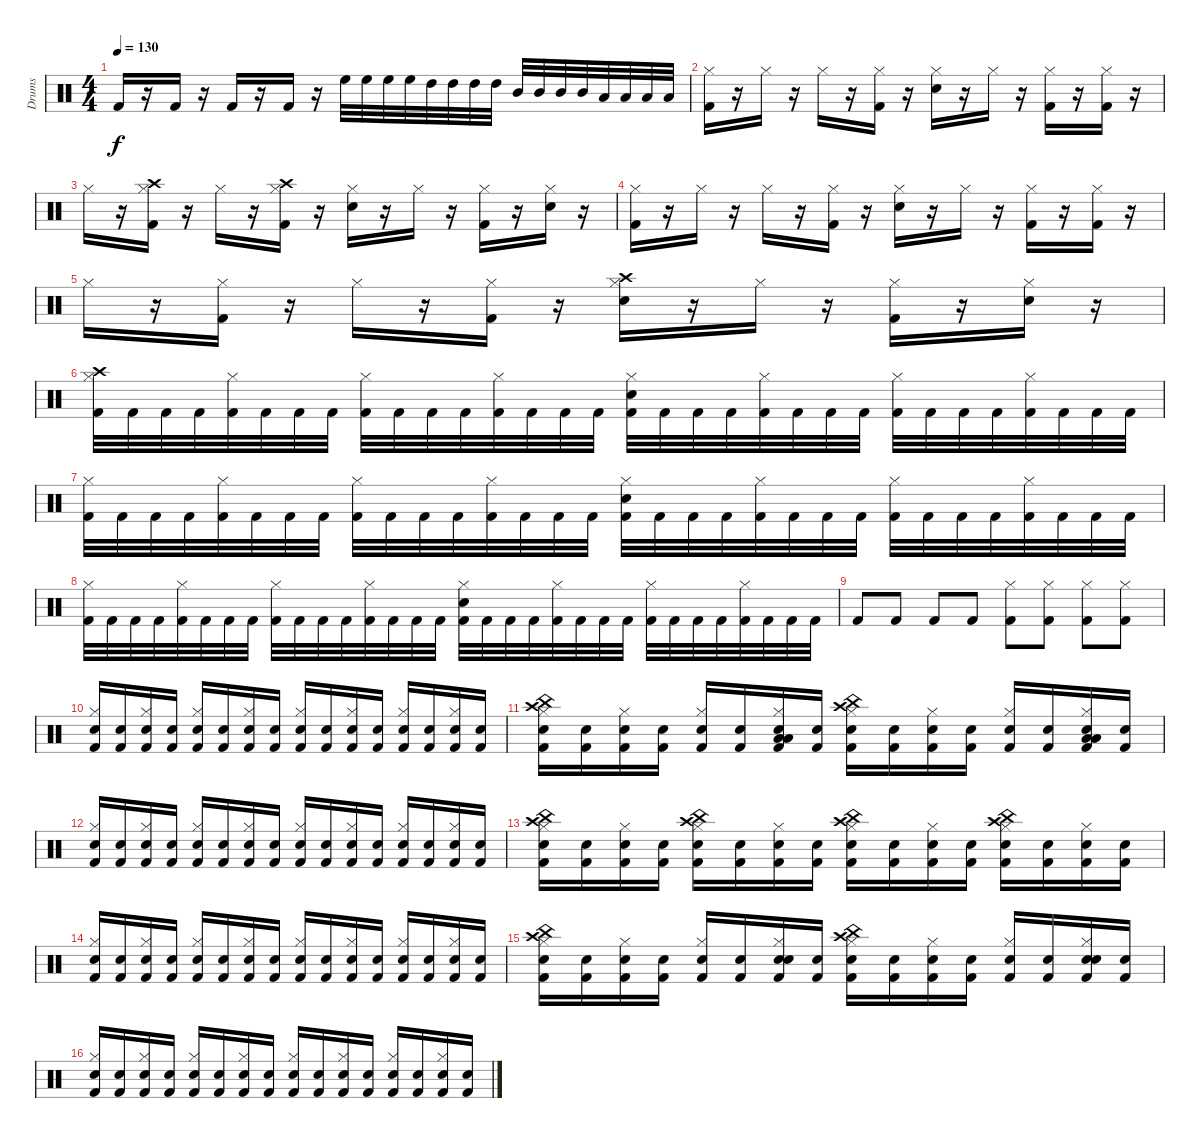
\track ("Drums" "Drums") {instrument percussion}
\staff {score}
\articulation defaults
\ts (4 4)
\tempo 130
\clef neutral
\ks c "Kick (hit) 2".16{dy f}
r.16 "Kick (hit) 2".16 r.16 "Kick (hit) 2".16 r.16 "Kick (hit) 2".16 r.16 "High Floor Tom (hit)".32 "High Floor Tom (hit)".32 "High Floor Tom (hit)".32 "High Floor Tom (hit)".32 "High Tom (hit)".32 "High Tom (hit)".32 "High Tom (hit)".32 "High Tom (hit)".32 "Mid Tom (hit)".32 "Mid Tom (hit)".32 "Mid Tom (hit)".32 "Mid Tom (hit)".32 "Low Tom (hit)".32 "Low Tom (hit)".32 "Low Tom (hit)".32 "Low Tom (hit)".32 |
("Hi-Hat (closed)" "Kick (hit) 2").16 r.16 "Hi-Hat (closed)".16 r.16 "Hi-Hat (closed)".16 r.16 ("Hi-Hat (closed)" "Kick (hit) 2").16 r.16 ("Hi-Hat (closed)" "Electric Snare (hit)").16 r.16 "Hi-Hat (closed)".16 r.16 ("Hi-Hat (closed)" "Kick (hit) 2").16 r.16 ("Hi-Hat (closed)" "Kick (hit) 2").16 r.16 |
"Hi-Hat (closed)".16 r.16 ("Hi-Hat (closed)" "Crash high (hit)" "Kick (hit) 2").16 r.16 "Hi-Hat (closed)".16 r.16 ("Hi-Hat (closed)" "Crash high (hit)" "Kick (hit) 2").16 r.16 ("Hi-Hat (closed)" "Electric Snare (hit)").16 r.16 "Hi-Hat (closed)".16 r.16 ("Hi-Hat (closed)" "Kick (hit) 2").16 r.16 ("Hi-Hat (closed)" "Electric Snare (hit)").16 r.16 |
("Hi-Hat (closed)" "Kick (hit) 2").16 r.16 "Hi-Hat (closed)".16 r.16 "Hi-Hat (closed)".16 r.16 ("Hi-Hat (closed)" "Kick (hit) 2").16 r.16 ("Hi-Hat (closed)" "Electric Snare (hit)").16 r.16 "Hi-Hat (closed)".16 r.16 ("Hi-Hat (closed)" "Kick (hit) 2").16 r.16 ("Hi-Hat (closed)" "Kick (hit) 2").16 r.16 |
"Hi-Hat (closed)".16 r.16 ("Hi-Hat (closed)" "Kick (hit) 2").16 r.16 "Hi-Hat (closed)".16 r.16 ("Hi-Hat (closed)" "Kick (hit) 2").16 r.16 ("Hi-Hat (closed)" "Crash high (hit)" "Electric Snare (hit)").16 r.16 "Hi-Hat (closed)".16 r.16 ("Hi-Hat (closed)" "Kick (hit) 2").16 r.16 ("Hi-Hat (closed)" "Electric Snare (hit)").16 r.16 |
("Hi-Hat (closed)" "Crash high (hit)" "Kick (hit) 2").32 "Kick (hit) 2".32 "Kick (hit) 2".32 "Kick (hit) 2".32 ("Hi-Hat (closed)" "Kick (hit) 2").32 "Kick (hit) 2".32 "Kick (hit) 2".32 "Kick (hit) 2".32 ("Hi-Hat (closed)" "Kick (hit) 2").32 "Kick (hit) 2".32 "Kick (hit) 2".32 "Kick (hit) 2".32 ("Hi-Hat (closed)" "Kick (hit) 2").32 "Kick (hit) 2".32 "Kick (hit) 2".32 "Kick (hit) 2".32 ("Hi-Hat (closed)" "Electric Snare (hit)" "Kick (hit) 2").32 "Kick (hit) 2".32 "Kick (hit) 2".32 "Kick (hit) 2".32 ("Hi-Hat (closed)" "Kick (hit) 2").32 "Kick (hit) 2".32 "Kick (hit) 2".32 "Kick (hit) 2".32 ("Hi-Hat (closed)" "Kick (hit) 2").32 "Kick (hit) 2".32 "Kick (hit) 2".32 "Kick (hit) 2".32 ("Hi-Hat (closed)" "Kick (hit) 2").32 "Kick (hit) 2".32 "Kick (hit) 2".32 "Kick (hit) 2".32 |
("Hi-Hat (closed)" "Kick (hit) 2").32 "Kick (hit) 2".32 "Kick (hit) 2".32 "Kick (hit) 2".32 ("Hi-Hat (closed)" "Kick (hit) 2").32 "Kick (hit) 2".32 "Kick (hit) 2".32 "Kick (hit) 2".32 ("Hi-Hat (closed)" "Kick (hit) 2").32 "Kick (hit) 2".32 "Kick (hit) 2".32 "Kick (hit) 2".32 ("Hi-Hat (closed)" "Kick (hit) 2").32 "Kick (hit) 2".32 "Kick (hit) 2".32 "Kick (hit) 2".32 ("Hi-Hat (closed)" "Electric Snare (hit)" "Kick (hit) 2").32 "Kick (hit) 2".32 "Kick (hit) 2".32 "Kick (hit) 2".32 ("Hi-Hat (closed)" "Kick (hit) 2").32 "Kick (hit) 2".32 "Kick (hit) 2".32 "Kick (hit) 2".32 ("Hi-Hat (closed)" "Kick (hit) 2").32 "Kick (hit) 2".32 "Kick (hit) 2".32 "Kick (hit) 2".32 ("Hi-Hat (closed)" "Kick (hit) 2").32 "Kick (hit) 2".32 "Kick (hit) 2".32 "Kick (hit) 2".32 |
("Hi-Hat (closed)" "Kick (hit) 2").32 "Kick (hit) 2".32 "Kick (hit) 2".32 "Kick (hit) 2".32 ("Hi-Hat (closed)" "Kick (hit) 2").32 "Kick (hit) 2".32 "Kick (hit) 2".32 "Kick (hit) 2".32 ("Hi-Hat (closed)" "Kick (hit) 2").32 "Kick (hit) 2".32 "Kick (hit) 2".32 "Kick (hit) 2".32 ("Hi-Hat (closed)" "Kick (hit) 2").32 "Kick (hit) 2".32 "Kick (hit) 2".32 "Kick (hit) 2".32 ("Hi-Hat (closed)" "Electric Snare (hit)" "Kick (hit) 2").32 "Kick (hit) 2".32 "Kick (hit) 2".32 "Kick (hit) 2".32 ("Hi-Hat (closed)" "Kick (hit) 2").32 "Kick (hit) 2".32 "Kick (hit) 2".32 "Kick (hit) 2".32 ("Hi-Hat (closed)" "Kick (hit) 2").32 "Kick (hit) 2".32 "Kick (hit) 2".32 "Kick (hit) 2".32 ("Hi-Hat (closed)" "Kick (hit) 2").32 "Kick (hit) 2".32 "Kick (hit) 2".32 "Kick (hit) 2".32 |
"Kick (hit) 2".8 "Kick (hit) 2".8 "Kick (hit) 2".8 "Kick (hit) 2".8 ("Hi-Hat (closed)" "Kick (hit) 2").8 ("Hi-Hat (closed)" "Kick (hit) 2").8 ("Hi-Hat (closed)" "Kick (hit) 2").8 ("Hi-Hat (closed)" "Kick (hit) 2").8 |
("Hi-Hat (closed)" "Electric Snare (hit)" "Kick (hit) 2").16 ("Electric Snare (hit)" "Kick (hit) 2").16 ("Hi-Hat (closed)" "Electric Snare (hit)" "Kick (hit) 2").16 ("Electric Snare (hit)" "Kick (hit) 2").16 ("Hi-Hat (closed)" "Electric Snare (hit)" "Kick (hit) 2").16 ("Electric Snare (hit)" "Kick (hit) 2").16 ("Hi-Hat (closed)" "Electric Snare (hit)" "Kick (hit) 2").16 ("Electric Snare (hit)" "Kick (hit) 2").16 ("Hi-Hat (closed)" "Electric Snare (hit)" "Kick (hit) 2").16 ("Electric Snare (hit)" "Kick (hit) 2").16 ("Hi-Hat (closed)" "Electric Snare (hit)" "Kick (hit) 2").16 ("Electric Snare (hit)" "Kick (hit) 2").16 ("Hi-Hat (closed)" "Electric Snare (hit)" "Kick (hit) 2").16 ("Electric Snare (hit)" "Kick (hit) 2").16 ("Hi-Hat (closed)" "Electric Snare (hit)" "Kick (hit) 2").16 ("Electric Snare (hit)" "Kick (hit) 2").16 |
("Hi-Hat (closed)" "Crash high (hit)" "Electric Snare (hit)" "China (hit)" "Kick (hit) 2").16 ("Electric Snare (hit)" "Kick (hit) 2").16 ("Hi-Hat (closed)" "Electric Snare (hit)" "Kick (hit) 2").16 ("Electric Snare (hit)" "Kick (hit) 2").16 ("Hi-Hat (closed)" "Electric Snare (hit)" "Kick (hit) 2").16 ("Electric Snare (hit)" "Kick (hit) 2").16 ("Hi-Hat (closed)" "Low Floor Tom (hit)" "Electric Snare (hit)" "Low Floor Tom (hit)" "Kick (hit) 2").16 ("Electric Snare (hit)" "Kick (hit) 2").16 ("Hi-Hat (closed)" "Crash high (hit)" "Electric Snare (hit)" "China (hit)" "Kick (hit) 2").16 ("Electric Snare (hit)" "Kick (hit) 2").16 ("Hi-Hat (closed)" "Electric Snare (hit)" "Kick (hit) 2").16 ("Electric Snare (hit)" "Kick (hit) 2").16 ("Hi-Hat (closed)" "Electric Snare (hit)" "Kick (hit) 2").16 ("Electric Snare (hit)" "Kick (hit) 2").16 ("Hi-Hat (closed)" "Low Floor Tom (hit)" "Electric Snare (hit)" "Low Floor Tom (hit)" "Kick (hit) 2").16 ("Electric Snare (hit)" "Kick (hit) 2").16 |
("Hi-Hat (closed)" "Electric Snare (hit)" "Kick (hit) 2").16 ("Electric Snare (hit)" "Kick (hit) 2").16 ("Hi-Hat (closed)" "Electric Snare (hit)" "Kick (hit) 2").16 ("Electric Snare (hit)" "Kick (hit) 2").16 ("Hi-Hat (closed)" "Electric Snare (hit)" "Kick (hit) 2").16 ("Electric Snare (hit)" "Kick (hit) 2").16 ("Hi-Hat (closed)" "Electric Snare (hit)" "Kick (hit) 2").16 ("Electric Snare (hit)" "Kick (hit) 2").16 ("Hi-Hat (closed)" "Electric Snare (hit)" "Kick (hit) 2").16 ("Electric Snare (hit)" "Kick (hit) 2").16 ("Hi-Hat (closed)" "Electric Snare (hit)" "Kick (hit) 2").16 ("Electric Snare (hit)" "Kick (hit) 2").16 ("Hi-Hat (closed)" "Electric Snare (hit)" "Kick (hit) 2").16 ("Electric Snare (hit)" "Kick (hit) 2").16 ("Hi-Hat (closed)" "Electric Snare (hit)" "Kick (hit) 2").16 ("Electric Snare (hit)" "Kick (hit) 2").16 |
("Hi-Hat (closed)" "Crash high (hit)" "Electric Snare (hit)" "China (hit)" "Kick (hit) 2").16 ("Electric Snare (hit)" "Kick (hit) 2").16 ("Hi-Hat (closed)" "Electric Snare (hit)" "Kick (hit) 2").16 ("Electric Snare (hit)" "Kick (hit) 2").16 ("Hi-Hat (closed)" "Crash high (hit)" "Electric Snare (hit)" "China (hit)" "Kick (hit) 2").16 ("Electric Snare (hit)" "Kick (hit) 2").16 ("Hi-Hat (closed)" "Electric Snare (hit)" "Kick (hit) 2").16 ("Electric Snare (hit)" "Kick (hit) 2").16 ("Hi-Hat (closed)" "Crash high (hit)" "Electric Snare (hit)" "China (hit)" "Kick (hit) 2").16 ("Electric Snare (hit)" "Kick (hit) 2").16 ("Hi-Hat (closed)" "Electric Snare (hit)" "Kick (hit) 2").16 ("Electric Snare (hit)" "Kick (hit) 2").16 ("Hi-Hat (closed)" "Crash high (hit)" "Electric Snare (hit)" "China (hit)" "Kick (hit) 2").16 ("Electric Snare (hit)" "Kick (hit) 2").16 ("Hi-Hat (closed)" "Electric Snare (hit)" "Kick (hit) 2").16 ("Electric Snare (hit)" "Kick (hit) 2").16 |
("Hi-Hat (closed)" "Electric Snare (hit)" "Kick (hit) 2").16 ("Electric Snare (hit)" "Kick (hit) 2").16 ("Hi-Hat (closed)" "Electric Snare (hit)" "Kick (hit) 2").16 ("Electric Snare (hit)" "Kick (hit) 2").16 ("Hi-Hat (closed)" "Electric Snare (hit)" "Kick (hit) 2").16 ("Electric Snare (hit)" "Kick (hit) 2").16 ("Hi-Hat (closed)" "Electric Snare (hit)" "Kick (hit) 2").16 ("Electric Snare (hit)" "Kick (hit) 2").16 ("Hi-Hat (closed)" "Electric Snare (hit)" "Kick (hit) 2").16 ("Electric Snare (hit)" "Kick (hit) 2").16 ("Hi-Hat (closed)" "Electric Snare (hit)" "Kick (hit) 2").16 ("Electric Snare (hit)" "Kick (hit) 2").16 ("Hi-Hat (closed)" "Electric Snare (hit)" "Kick (hit) 2").16 ("Electric Snare (hit)" "Kick (hit) 2").16 ("Hi-Hat (closed)" "Electric Snare (hit)" "Kick (hit) 2").16 ("Electric Snare (hit)" "Kick (hit) 2").16 |
("Hi-Hat (closed)" "Crash high (hit)" "Electric Snare (hit)" "China (hit)" "Kick (hit) 2").16 ("Electric Snare (hit)" "Kick (hit) 2").16 ("Hi-Hat (closed)" "Electric Snare (hit)" "Kick (hit) 2").16 ("Electric Snare (hit)" "Kick (hit) 2").16 ("Hi-Hat (closed)" "Electric Snare (hit)" "Kick (hit) 2").16 ("Electric Snare (hit)" "Kick (hit) 2").16 ("Hi-Hat (closed)" "Snare (hit) 2" "Electric Snare (hit)" "Kick (hit) 2").16 ("Electric Snare (hit)" "Kick (hit) 2").16 ("Hi-Hat (closed)" "Crash high (hit)" "Electric Snare (hit)" "China (hit)" "Kick (hit) 2").16 ("Electric Snare (hit)" "Kick (hit) 2").16 ("Hi-Hat (closed)" "Electric Snare (hit)" "Kick (hit) 2").16 ("Electric Snare (hit)" "Kick (hit) 2").16 ("Hi-Hat (closed)" "Electric Snare (hit)" "Kick (hit) 2").16 ("Electric Snare (hit)" "Kick (hit) 2").16 ("Hi-Hat (closed)" "Snare (hit) 2" "Electric Snare (hit)" "Kick (hit) 2").16 ("Electric Snare (hit)" "Kick (hit) 2").16 |
("Hi-Hat (closed)" "Electric Snare (hit)" "Kick (hit) 2").16 ("Electric Snare (hit)" "Kick (hit) 2").16 ("Hi-Hat (closed)" "Electric Snare (hit)" "Kick (hit) 2").16 ("Electric Snare (hit)" "Kick (hit) 2").16 ("Hi-Hat (closed)" "Electric Snare (hit)" "Kick (hit) 2").16 ("Electric Snare (hit)" "Kick (hit) 2").16 ("Hi-Hat (closed)" "Electric Snare (hit)" "Kick (hit) 2").16 ("Electric Snare (hit)" "Kick (hit) 2").16 ("Hi-Hat (closed)" "Electric Snare (hit)" "Kick (hit) 2").16 ("Electric Snare (hit)" "Kick (hit) 2").16 ("Hi-Hat (closed)" "Electric Snare (hit)" "Kick (hit) 2").16 ("Electric Snare (hit)" "Kick (hit) 2").16 ("Hi-Hat (closed)" "Electric Snare (hit)" "Kick (hit) 2").16 ("Electric Snare (hit)" "Kick (hit) 2").16 ("Hi-Hat (closed)" "Electric Snare (hit)" "Kick (hit) 2").16 ("Electric Snare (hit)" "Kick (hit) 2").16
